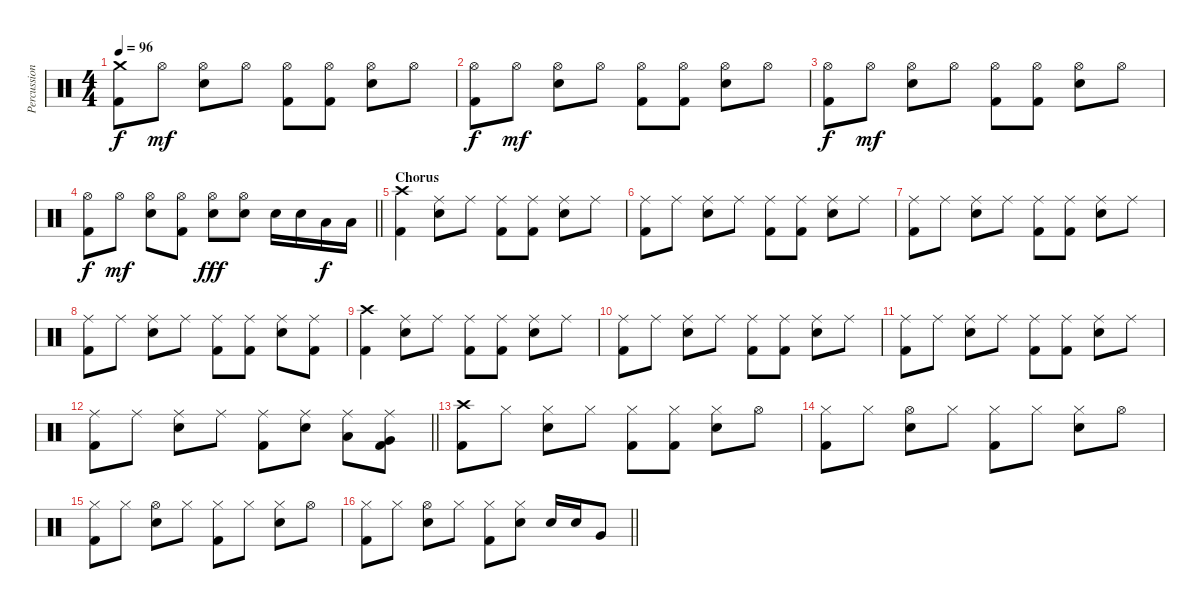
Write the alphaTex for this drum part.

\track ("Percussion" "Percussion") {instrument percussion}
\staff {score}
\articulation defaults
\ts (4 4)
\tempo 96
\clef neutral
\ks c
("Crash medium (hit)" "Kick (hit) 2").8{dy f} "Hi-Hat (open)".8{dy mf} ("Hi-Hat (open)" "Electric Snare (hit)").8 "Hi-Hat (open)".8 ("Hi-Hat (open)" "Kick (hit) 2").8 ("Hi-Hat (open)" "Kick (hit) 2").8 ("Hi-Hat (open)" "Electric Snare (hit)").8 "Hi-Hat (open)".8 |
("Hi-Hat (open)" "Kick (hit) 2").8{dy f} "Hi-Hat (open)".8{dy mf} ("Hi-Hat (open)" "Electric Snare (hit)").8 "Hi-Hat (open)".8 ("Hi-Hat (open)" "Kick (hit) 2").8 ("Hi-Hat (open)" "Kick (hit) 2").8 ("Hi-Hat (open)" "Electric Snare (hit)").8 "Hi-Hat (open)".8 |
("Hi-Hat (open)" "Kick (hit) 2").8{dy f} "Hi-Hat (open)".8{dy mf} ("Hi-Hat (open)" "Electric Snare (hit)").8 "Hi-Hat (open)".8 ("Hi-Hat (open)" "Kick (hit) 2").8 ("Hi-Hat (open)" "Kick (hit) 2").8 ("Hi-Hat (open)" "Electric Snare (hit)").8 "Hi-Hat (open)".8 |
\barLineRight lightlight
("Hi-Hat (open)" "Kick (hit) 2").8{dy f} "Hi-Hat (open)".8{dy mf} ("Hi-Hat (open)" "Electric Snare (hit)").8 ("Hi-Hat (open)" "Kick (hit) 2").8 ("Hi-Hat (open)" "Electric Snare (hit)").8{dy fff} ("Hi-Hat (open)" "Electric Snare (hit)").8 "Electric Snare (hit)".16 "Electric Snare (hit)".16 "Low Tom (hit)".16{dy f} "Low Tom (hit)".16 |
\section ("" "Chorus")
("Crash high (hit)" "Kick (hit) 2").4 ("Ride (middle)" "Electric Snare (hit)").8 "Ride (middle)".8 ("Ride (middle)" "Kick (hit) 2").8 ("Ride (middle)" "Kick (hit) 2").8 ("Ride (middle)" "Electric Snare (hit)").8 "Ride (middle)".8 |
("Ride (middle)" "Kick (hit) 2").8 "Ride (middle)".8 ("Ride (middle)" "Electric Snare (hit)").8 "Ride (middle)".8 ("Ride (middle)" "Kick (hit) 2").8 ("Ride (middle)" "Kick (hit) 2").8 ("Ride (middle)" "Electric Snare (hit)").8 "Ride (middle)".8 |
("Ride (middle)" "Kick (hit) 2").8 "Ride (middle)".8 ("Ride (middle)" "Electric Snare (hit)").8 "Ride (middle)".8 ("Ride (middle)" "Kick (hit) 2").8 ("Ride (middle)" "Kick (hit) 2").8 ("Ride (middle)" "Electric Snare (hit)").8 "Ride (middle)".8 |
("Ride (middle)" "Kick (hit) 2").8 "Ride (middle)".8 ("Ride (middle)" "Electric Snare (hit)").8 "Ride (middle)".8 ("Ride (middle)" "Kick (hit) 2").8 ("Ride (middle)" "Kick (hit) 2").8 ("Ride (middle)" "Electric Snare (hit)").8 ("Ride (middle)" "Kick (hit) 2").8 |
("Crash high (hit)" "Kick (hit) 2").4 ("Ride (middle)" "Electric Snare (hit)").8 "Ride (middle)".8 ("Ride (middle)" "Kick (hit) 2").8 ("Ride (middle)" "Kick (hit) 2").8 ("Ride (middle)" "Electric Snare (hit)").8 "Ride (middle)".8 |
("Ride (middle)" "Kick (hit) 2").8 "Ride (middle)".8 ("Ride (middle)" "Electric Snare (hit)").8 "Ride (middle)".8 ("Ride (middle)" "Kick (hit) 2").8 ("Ride (middle)" "Kick (hit) 2").8 ("Ride (middle)" "Electric Snare (hit)").8 "Ride (middle)".8 |
("Ride (middle)" "Kick (hit) 2").8 "Ride (middle)".8 ("Ride (middle)" "Electric Snare (hit)").8 "Ride (middle)".8 ("Ride (middle)" "Kick (hit) 2").8 ("Ride (middle)" "Kick (hit) 2").8 ("Ride (middle)" "Electric Snare (hit)").8 "Ride (middle)".8 |
\barLineRight lightlight
("Ride (middle)" "Kick (hit) 2").8 "Ride (middle)".8 ("Ride (middle)" "Electric Snare (hit)").8 "Ride (middle)".8 ("Ride (middle)" "Kick (hit) 2").8 ("Ride (middle)" "Electric Snare (hit)").8 ("Ride (middle)" "Low Tom (hit)").8 ("Ride (middle)" "Very Low Tom (hit)" "Kick (hit) 2").8 |
("Crash high (hit)" "Kick (hit) 2").8 "Hi-Hat (closed)".8 ("Hi-Hat (closed)" "Electric Snare (hit)").8 "Hi-Hat (closed)".8 ("Hi-Hat (closed)" "Kick (hit) 2").8 ("Hi-Hat (closed)" "Kick (hit) 2").8 ("Hi-Hat (closed)" "Electric Snare (hit)").8 "Hi-Hat (open)".8 |
("Hi-Hat (closed)" "Kick (hit) 2").8 "Hi-Hat (closed)".8 ("Hi-Hat (open)" "Electric Snare (hit)").8 "Hi-Hat (closed)".8 ("Hi-Hat (closed)" "Kick (hit) 2").8 "Hi-Hat (closed)".8 ("Hi-Hat (closed)" "Electric Snare (hit)").8 "Hi-Hat (open)".8 |
("Hi-Hat (closed)" "Kick (hit) 2").8 "Hi-Hat (closed)".8 ("Hi-Hat (open)" "Electric Snare (hit)").8 "Hi-Hat (closed)".8 ("Hi-Hat (closed)" "Kick (hit) 2").8 "Hi-Hat (closed)".8 ("Hi-Hat (closed)" "Electric Snare (hit)").8 "Hi-Hat (open)".8 |
\barLineRight lightlight
("Hi-Hat (closed)" "Kick (hit) 2").8 "Hi-Hat (closed)".8 ("Hi-Hat (open)" "Electric Snare (hit)").8 "Hi-Hat (closed)".8 ("Hi-Hat (closed)" "Kick (hit) 2").8 ("Hi-Hat (closed)" "Electric Snare (hit)").8 "Electric Snare (hit)".16 "Electric Snare (hit)".16 "Very Low Tom (hit)".8
